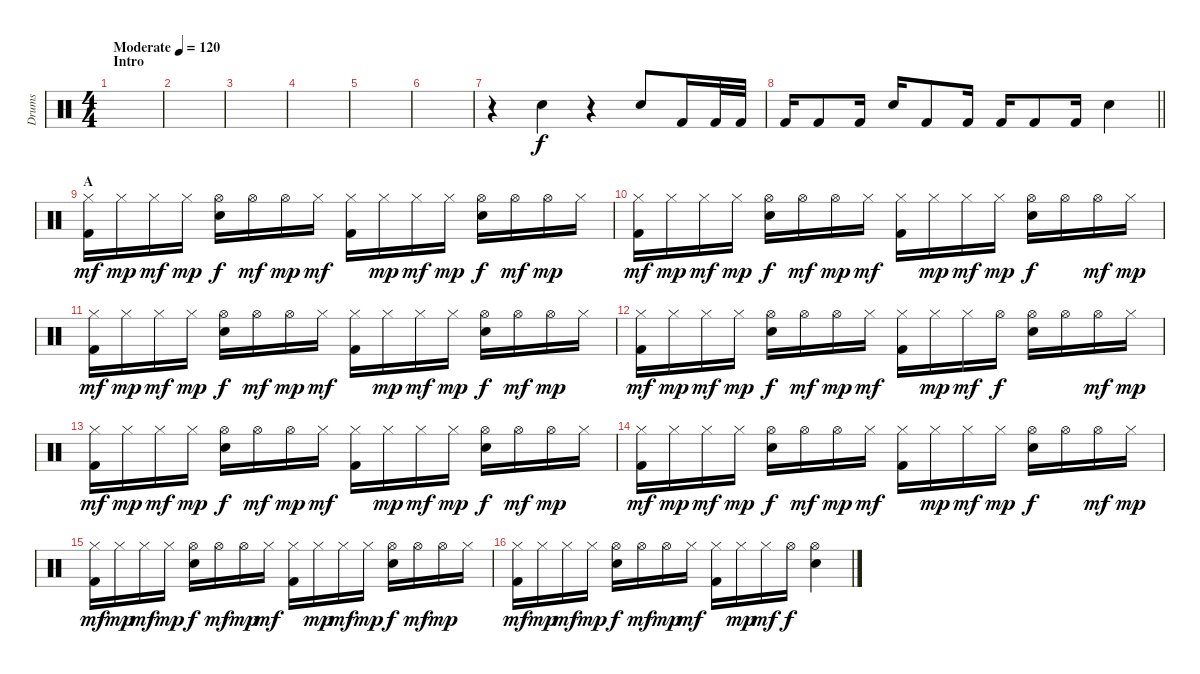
\track ("Drums" "Drums") {instrument percussion}
\staff
\articulation defaults
\ts (4 4)
\section ("" "Intro")
\tempo (120 "Moderate")
\clef neutral
\ks c
|
|
|
|
|
|
r.4 "Electric Snare (hit)".4 r.4 "Electric Snare (hit)".8 "Kick (hit) 2".16 "Kick (hit) 2".32 "Kick (hit) 2".32 |
\barLineRight lightlight "Kick (hit) 2".16 "Kick (hit) 2".8 "Kick (hit) 2".16 "Electric Snare (hit)".16 "Kick (hit) 2".8 "Kick (hit) 2".16 "Kick (hit) 2".16 "Kick (hit) 2".8 "Kick (hit) 2".16 "Electric Snare (hit)".4
|
\section ("" "A")
("Hi-Hat (closed)" "Kick (hit) 2").16{dy mf} "Hi-Hat (closed)".16{dy mp} "Hi-Hat (closed)".16{dy mf} "Hi-Hat (closed)".16{dy mp} ("Hi-Hat (open)" "Electric Snare (hit)").16{dy f} "Hi-Hat (open)".16{dy mf} "Hi-Hat (open)".16{dy mp} "Hi-Hat (closed)".16{dy mf} ("Hi-Hat (closed)" "Kick (hit) 2").16 "Hi-Hat (closed)".16{dy mp} "Hi-Hat (closed)".16{dy mf} "Hi-Hat (closed)".16{dy mp} ("Hi-Hat (open)" "Electric Snare (hit)").16{dy f} "Hi-Hat (open)".16{dy mf} "Hi-Hat (open)".16{dy mp} "Hi-Hat (closed)".16 |
("Hi-Hat (closed)" "Kick (hit) 2").16{dy mf} "Hi-Hat (closed)".16{dy mp} "Hi-Hat (closed)".16{dy mf} "Hi-Hat (closed)".16{dy mp} ("Hi-Hat (open)" "Electric Snare (hit)").16{dy f} "Hi-Hat (open)".16{dy mf} "Hi-Hat (open)".16{dy mp} "Hi-Hat (closed)".16{dy mf} ("Hi-Hat (closed)" "Kick (hit) 2").16 "Hi-Hat (closed)".16{dy mp} "Hi-Hat (closed)".16{dy mf} "Hi-Hat (closed)".16{dy mp} ("Hi-Hat (open)" "Electric Snare (hit)").16{dy f} "Hi-Hat (open)".16 "Hi-Hat (open)".16{dy mf} "Hi-Hat (closed)".16{dy mp} |
("Hi-Hat (closed)" "Kick (hit) 2").16{dy mf} "Hi-Hat (closed)".16{dy mp} "Hi-Hat (closed)".16{dy mf} "Hi-Hat (closed)".16{dy mp} ("Hi-Hat (open)" "Electric Snare (hit)").16{dy f} "Hi-Hat (open)".16{dy mf} "Hi-Hat (open)".16{dy mp} "Hi-Hat (closed)".16{dy mf} ("Hi-Hat (closed)" "Kick (hit) 2").16 "Hi-Hat (closed)".16{dy mp} "Hi-Hat (closed)".16{dy mf} "Hi-Hat (closed)".16{dy mp} ("Hi-Hat (open)" "Electric Snare (hit)").16{dy f} "Hi-Hat (open)".16{dy mf} "Hi-Hat (open)".16{dy mp} "Hi-Hat (closed)".16 |
("Hi-Hat (closed)" "Kick (hit) 2").16{dy mf} "Hi-Hat (closed)".16{dy mp} "Hi-Hat (closed)".16{dy mf} "Hi-Hat (closed)".16{dy mp} ("Hi-Hat (open)" "Electric Snare (hit)").16{dy f} "Hi-Hat (open)".16{dy mf} "Hi-Hat (open)".16{dy mp} "Hi-Hat (closed)".16{dy mf} ("Hi-Hat (closed)" "Kick (hit) 2").16 "Hi-Hat (closed)".16{dy mp} "Hi-Hat (closed)".16{dy mf} "Hi-Hat (open)".16{dy f} ("Hi-Hat (open)" "Electric Snare (hit)").16 "Hi-Hat (open)".16 "Hi-Hat (open)".16{dy mf} "Hi-Hat (closed)".16{dy mp} |
("Hi-Hat (closed)" "Kick (hit) 2").16{dy mf} "Hi-Hat (closed)".16{dy mp} "Hi-Hat (closed)".16{dy mf} "Hi-Hat (closed)".16{dy mp} ("Hi-Hat (open)" "Electric Snare (hit)").16{dy f} "Hi-Hat (open)".16{dy mf} "Hi-Hat (open)".16{dy mp} "Hi-Hat (closed)".16{dy mf} ("Hi-Hat (closed)" "Kick (hit) 2").16 "Hi-Hat (closed)".16{dy mp} "Hi-Hat (closed)".16{dy mf} "Hi-Hat (closed)".16{dy mp} ("Hi-Hat (open)" "Electric Snare (hit)").16{dy f} "Hi-Hat (open)".16{dy mf} "Hi-Hat (open)".16{dy mp} "Hi-Hat (closed)".16 |
("Hi-Hat (closed)" "Kick (hit) 2").16{dy mf} "Hi-Hat (closed)".16{dy mp} "Hi-Hat (closed)".16{dy mf} "Hi-Hat (closed)".16{dy mp} ("Hi-Hat (open)" "Electric Snare (hit)").16{dy f} "Hi-Hat (open)".16{dy mf} "Hi-Hat (open)".16{dy mp} "Hi-Hat (closed)".16{dy mf} ("Hi-Hat (closed)" "Kick (hit) 2").16 "Hi-Hat (closed)".16{dy mp} "Hi-Hat (closed)".16{dy mf} "Hi-Hat (closed)".16{dy mp} ("Hi-Hat (open)" "Electric Snare (hit)").16{dy f} "Hi-Hat (open)".16 "Hi-Hat (open)".16{dy mf} "Hi-Hat (closed)".16{dy mp} |
("Hi-Hat (closed)" "Kick (hit) 2").16{dy mf} "Hi-Hat (closed)".16{dy mp} "Hi-Hat (closed)".16{dy mf} "Hi-Hat (closed)".16{dy mp} ("Hi-Hat (open)" "Electric Snare (hit)").16{dy f} "Hi-Hat (open)".16{dy mf} "Hi-Hat (open)".16{dy mp} "Hi-Hat (closed)".16{dy mf} ("Hi-Hat (closed)" "Kick (hit) 2").16 "Hi-Hat (closed)".16{dy mp} "Hi-Hat (closed)".16{dy mf} "Hi-Hat (closed)".16{dy mp} ("Hi-Hat (open)" "Electric Snare (hit)").16{dy f} "Hi-Hat (open)".16{dy mf} "Hi-Hat (open)".16{dy mp} "Hi-Hat (closed)".16 |
("Hi-Hat (closed)" "Kick (hit) 2").16{dy mf} "Hi-Hat (closed)".16{dy mp} "Hi-Hat (closed)".16{dy mf} "Hi-Hat (closed)".16{dy mp} ("Hi-Hat (open)" "Electric Snare (hit)").16{dy f} "Hi-Hat (open)".16{dy mf} "Hi-Hat (open)".16{dy mp} "Hi-Hat (closed)".16{dy mf} ("Hi-Hat (closed)" "Kick (hit) 2").16 "Hi-Hat (closed)".16{dy mp} "Hi-Hat (closed)".16{dy mf} "Hi-Hat (open)".16{dy f} ("Hi-Hat (open)" "Electric Snare (hit)").4
